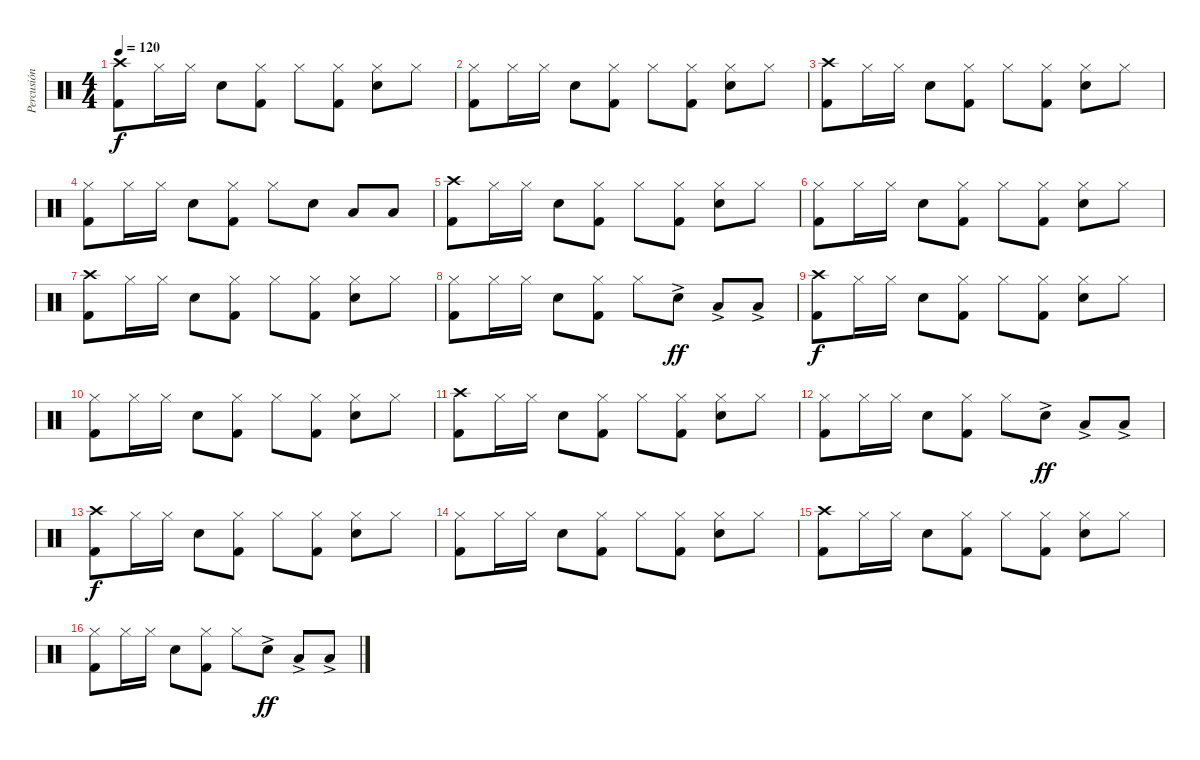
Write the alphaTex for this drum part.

\track ("Percusión" "Percusión") {instrument percussion}
\staff {score}
\articulation defaults
\ts (4 4)
\tempo 120
\clef neutral
\ks c
("Crash high (hit)" "Kick (hit) 2").8{dy f} "Hi-Hat (closed)".16 "Hi-Hat (closed)".16 "Snare (hit) 2".8 ("Hi-Hat (closed)" "Kick (hit) 2").8 "Hi-Hat (closed)".8 ("Hi-Hat (closed)" "Kick (hit) 2").8 ("Hi-Hat (closed)" "Snare (hit) 2").8 "Hi-Hat (closed)".8 |
("Hi-Hat (closed)" "Kick (hit) 2").8 "Hi-Hat (closed)".16 "Hi-Hat (closed)".16 "Snare (hit) 2".8 ("Hi-Hat (closed)" "Kick (hit) 2").8 "Hi-Hat (closed)".8 ("Hi-Hat (closed)" "Kick (hit) 2").8 ("Hi-Hat (closed)" "Snare (hit) 2").8 "Hi-Hat (closed)".8 |
("Crash high (hit)" "Kick (hit) 2").8 "Hi-Hat (closed)".16 "Hi-Hat (closed)".16 "Snare (hit) 2".8 ("Hi-Hat (closed)" "Kick (hit) 2").8 "Hi-Hat (closed)".8 ("Hi-Hat (closed)" "Kick (hit) 2").8 ("Hi-Hat (closed)" "Snare (hit) 2").8 "Hi-Hat (closed)".8 |
("Hi-Hat (closed)" "Kick (hit) 2").8 "Hi-Hat (closed)".16 "Hi-Hat (closed)".16 "Snare (hit) 2".8 ("Hi-Hat (closed)" "Kick (hit) 2").8 "Hi-Hat (closed)".8 "Snare (hit) 2".8 "Low Tom (hit)".8 "Low Floor Tom (hit)".8 |
("Crash high (hit)" "Kick (hit) 2").8 "Hi-Hat (closed)".16 "Hi-Hat (closed)".16 "Snare (hit) 2".8 ("Hi-Hat (closed)" "Kick (hit) 2").8 "Hi-Hat (closed)".8 ("Hi-Hat (closed)" "Kick (hit) 2").8 ("Hi-Hat (closed)" "Snare (hit) 2").8 "Hi-Hat (closed)".8 |
("Hi-Hat (closed)" "Kick (hit) 2").8 "Hi-Hat (closed)".16 "Hi-Hat (closed)".16 "Snare (hit) 2".8 ("Hi-Hat (closed)" "Kick (hit) 2").8 "Hi-Hat (closed)".8 ("Hi-Hat (closed)" "Kick (hit) 2").8 ("Hi-Hat (closed)" "Snare (hit) 2").8 "Hi-Hat (closed)".8 |
("Crash high (hit)" "Kick (hit) 2").8 "Hi-Hat (closed)".16 "Hi-Hat (closed)".16 "Snare (hit) 2".8 ("Hi-Hat (closed)" "Kick (hit) 2").8 "Hi-Hat (closed)".8 ("Hi-Hat (closed)" "Kick (hit) 2").8 ("Hi-Hat (closed)" "Snare (hit) 2").8 "Hi-Hat (closed)".8 |
("Hi-Hat (closed)" "Kick (hit) 2").8 "Hi-Hat (closed)".16 "Hi-Hat (closed)".16 "Snare (hit) 2".8 ("Hi-Hat (closed)" "Kick (hit) 2").8 "Hi-Hat (closed)".8 "Snare (hit) 2"{ac}.8{dy ff} "Low Tom (hit)"{ac}.8 "Low Floor Tom (hit)"{ac}.8 |
("Crash high (hit)" "Kick (hit) 2").8{dy f} "Hi-Hat (closed)".16 "Hi-Hat (closed)".16 "Snare (hit) 2".8 ("Hi-Hat (closed)" "Kick (hit) 2").8 "Hi-Hat (closed)".8 ("Hi-Hat (closed)" "Kick (hit) 2").8 ("Hi-Hat (closed)" "Snare (hit) 2").8 "Hi-Hat (closed)".8 |
("Hi-Hat (closed)" "Kick (hit) 2").8 "Hi-Hat (closed)".16 "Hi-Hat (closed)".16 "Snare (hit) 2".8 ("Hi-Hat (closed)" "Kick (hit) 2").8 "Hi-Hat (closed)".8 ("Hi-Hat (closed)" "Kick (hit) 2").8 ("Hi-Hat (closed)" "Snare (hit) 2").8 "Hi-Hat (closed)".8 |
("Crash high (hit)" "Kick (hit) 2").8 "Hi-Hat (closed)".16 "Hi-Hat (closed)".16 "Snare (hit) 2".8 ("Hi-Hat (closed)" "Kick (hit) 2").8 "Hi-Hat (closed)".8 ("Hi-Hat (closed)" "Kick (hit) 2").8 ("Hi-Hat (closed)" "Snare (hit) 2").8 "Hi-Hat (closed)".8 |
("Hi-Hat (closed)" "Kick (hit) 2").8 "Hi-Hat (closed)".16 "Hi-Hat (closed)".16 "Snare (hit) 2".8 ("Hi-Hat (closed)" "Kick (hit) 2").8 "Hi-Hat (closed)".8 "Snare (hit) 2"{ac}.8{dy ff} "Low Tom (hit)"{ac}.8 "Low Floor Tom (hit)"{ac}.8 |
("Crash high (hit)" "Kick (hit) 2").8{dy f} "Hi-Hat (closed)".16 "Hi-Hat (closed)".16 "Snare (hit) 2".8 ("Hi-Hat (closed)" "Kick (hit) 2").8 "Hi-Hat (closed)".8 ("Hi-Hat (closed)" "Kick (hit) 2").8 ("Hi-Hat (closed)" "Snare (hit) 2").8 "Hi-Hat (closed)".8 |
("Hi-Hat (closed)" "Kick (hit) 2").8 "Hi-Hat (closed)".16 "Hi-Hat (closed)".16 "Snare (hit) 2".8 ("Hi-Hat (closed)" "Kick (hit) 2").8 "Hi-Hat (closed)".8 ("Hi-Hat (closed)" "Kick (hit) 2").8 ("Hi-Hat (closed)" "Snare (hit) 2").8 "Hi-Hat (closed)".8 |
("Crash high (hit)" "Kick (hit) 2").8 "Hi-Hat (closed)".16 "Hi-Hat (closed)".16 "Snare (hit) 2".8 ("Hi-Hat (closed)" "Kick (hit) 2").8 "Hi-Hat (closed)".8 ("Hi-Hat (closed)" "Kick (hit) 2").8 ("Hi-Hat (closed)" "Snare (hit) 2").8 "Hi-Hat (closed)".8 |
("Hi-Hat (closed)" "Kick (hit) 2").8 "Hi-Hat (closed)".16 "Hi-Hat (closed)".16 "Snare (hit) 2".8 ("Hi-Hat (closed)" "Kick (hit) 2").8 "Hi-Hat (closed)".8 "Snare (hit) 2"{ac}.8{dy ff} "Low Tom (hit)"{ac}.8 "Low Floor Tom (hit)"{ac}.8
